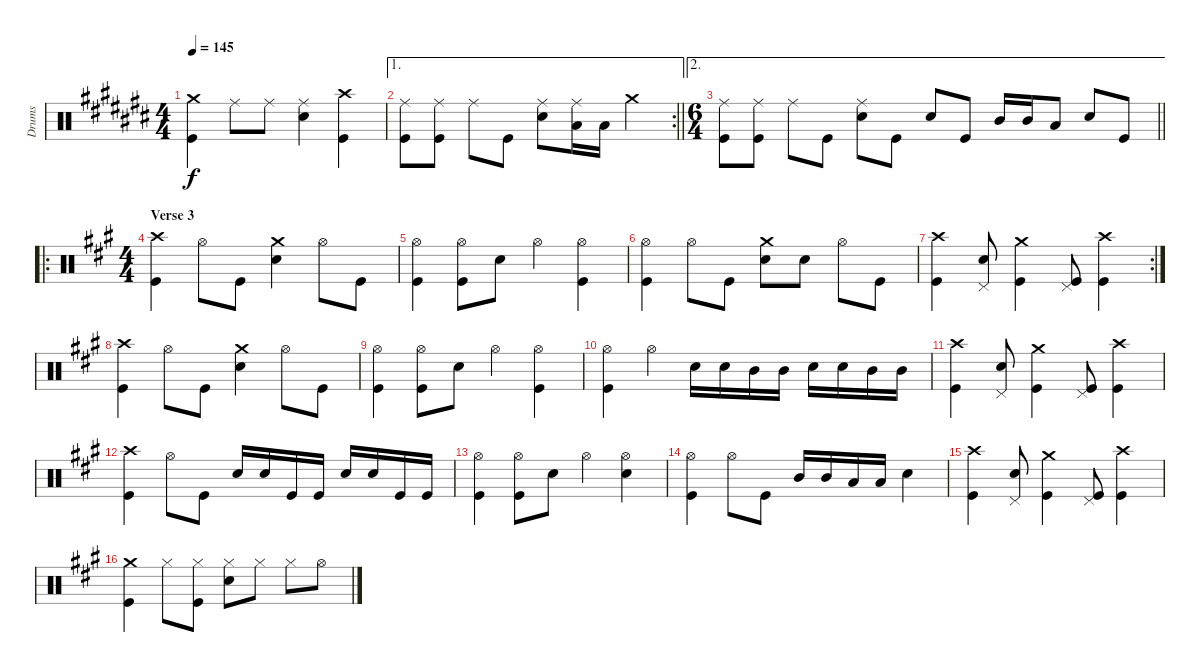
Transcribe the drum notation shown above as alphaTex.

\track ("Drums" "Drums") {instrument percussion}
\staff {score}
\articulation defaults
\ts (4 4)
\tempo 145
\clef neutral
\ks c#
("Crash medium (hit)" "Kick (hit)").4{dy f} "Ride (middle)".8 "Ride (middle)".8 ("Ride (middle)" "Snare (hit) 2").4 ("Crash high (hit)" "Kick (hit)").4 |
\ae 1
\rc 2
\barLineRight lightlight
("Ride (middle)" "Kick (hit)").8 ("Ride (middle)" "Kick (hit)").8 "Ride (middle)".8 "Kick (hit)".8 ("Ride (middle)" "Snare (hit) 2").8 ("Ride (middle)" "Low Tom (hit)").16 "Low Tom (hit)".16 "Crash medium (hit)".4 |
\ae 2
\ts (6 4)
\barLineRight lightlight
("Ride (middle)" "Kick (hit)").8 ("Ride (middle)" "Kick (hit)").8 "Ride (middle)".8 "Kick (hit)".8 ("Ride (middle)" "Snare (hit) 2").8 "Kick (hit)".8 "Snare (hit) 2".8 "Kick (hit)".8 "Mid Tom (hit)".16 "Mid Tom (hit)".16 "Low Tom (hit)".8 "Snare (hit) 2".8 "Kick (hit)".8 |
\ro
\ts (4 4)
\section ("" "Verse 3")
\ks a
("Crash high (hit)" "Kick (hit)").4 "Hi-Hat (open)".8 "Kick (hit)".8 ("Crash medium (hit)" "Snare (hit) 2").4 "Hi-Hat (open)".8 "Kick (hit)".8 |
("Hi-Hat (open)" "Kick (hit)").4 ("Hi-Hat (open)" "Kick (hit)").8 "Snare (hit) 2".8 "Hi-Hat (open)".4 ("Hi-Hat (open)" "Kick (hit)").4 |
("Hi-Hat (open)" "Kick (hit)").4 "Hi-Hat (open)".8 "Kick (hit)".8 ("Crash medium (hit)" "Snare (hit) 2").8 "Snare (hit) 2".8 "Hi-Hat (open)".8 "Kick (hit)".8 |
\rc 2
("Crash high (hit)" "Kick (hit)").4 ("Pedal Hi-Hat (hit)" "Snare (hit) 2").8 ("Crash medium (hit)" "Kick (hit)").4 ("Pedal Hi-Hat (hit)" "Kick (hit)").8 ("Crash high (hit)" "Kick (hit)").4 |
("Crash high (hit)" "Kick (hit)").4 "Hi-Hat (open)".8 "Kick (hit)".8 ("Crash medium (hit)" "Snare (hit) 2").4 "Hi-Hat (open)".8 "Kick (hit)".8 |
("Hi-Hat (open)" "Kick (hit)").4 ("Hi-Hat (open)" "Kick (hit)").8 "Snare (hit) 2".8 "Hi-Hat (open)".4 ("Hi-Hat (open)" "Kick (hit)").4 |
("Hi-Hat (open)" "Kick (hit)").4 "Hi-Hat (open)".4 "Snare (hit) 2".16 "Snare (hit) 2".16 "Mid Tom (hit)".16 "Mid Tom (hit)".16 "Snare (hit) 2".16 "Snare (hit) 2".16 "Mid Tom (hit)".16 "Mid Tom (hit)".16 |
("Crash high (hit)" "Kick (hit)").4 ("Pedal Hi-Hat (hit)" "Snare (hit) 2").8 ("Crash medium (hit)" "Kick (hit)").4 ("Pedal Hi-Hat (hit)" "Kick (hit)").8 ("Crash high (hit)" "Kick (hit)").4 |
("Crash high (hit)" "Kick (hit)").4 "Hi-Hat (open)".8 "Kick (hit)".8 "Snare (hit) 2".16 "Snare (hit) 2".16 "Kick (hit)".16 "Kick (hit)".16 "Snare (hit) 2".16 "Snare (hit) 2".16 "Kick (hit)".16 "Kick (hit)".16 |
("Hi-Hat (open)" "Kick (hit)").4 ("Hi-Hat (open)" "Kick (hit)").8 "Snare (hit) 2".8 "Hi-Hat (open)".4 ("Hi-Hat (open)" "Snare (hit) 2").4 |
("Hi-Hat (open)" "Kick (hit)").4 "Hi-Hat (open)".8 "Kick (hit)".8 "Mid Tom (hit)".16 "Mid Tom (hit)".16 "Low Tom (hit)".16 "Low Tom (hit)".16 "Snare (hit) 2".4 |
("Crash high (hit)" "Kick (hit)").4 ("Pedal Hi-Hat (hit)" "Snare (hit) 2").8 ("Crash medium (hit)" "Kick (hit)").4 ("Pedal Hi-Hat (hit)" "Kick (hit)").8 ("Crash high (hit)" "Kick (hit)").4 |
("Crash medium (hit)" "Kick (hit)").4 "Hi-Hat (closed)".8 ("Hi-Hat (closed)" "Kick (hit)").8 ("Hi-Hat (closed)" "Snare (hit) 2").8 "Hi-Hat (closed)".8 "Hi-Hat (closed)".8 "Hi-Hat (open)".8
